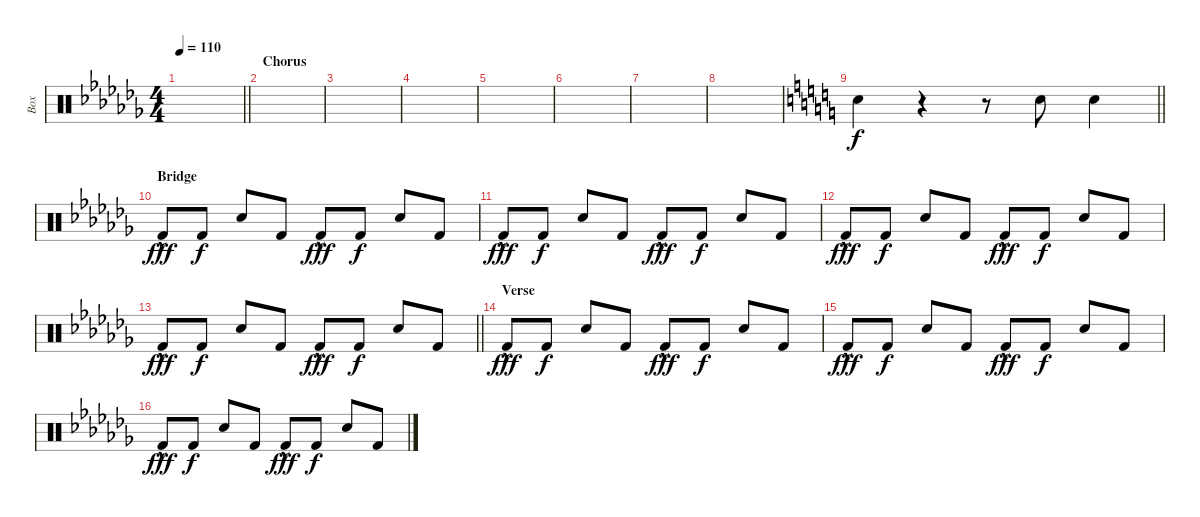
\track ("Box" "Box") {instrument percussion}
\staff {score}
\articulation defaults
\ts (4 4)
\tempo 110
\clef neutral
\barLineRight lightlight
\ks abminor
|
\section ("" "Chorus")
|
|
|
|
|
|
|
\barLineRight lightlight
\ks c "Snare (hit)".4
r.4 r.8 "Snare (hit) 2".8 "Snare (hit) 2".4 |
\section ("" "Bridge")
\ks abminor "Kick (hit) 2"{hac}.8{dy fff volume 13} "Kick (hit) 2".8{dy f volume 5} "Snare (hit) 2".8{volume 13} "Kick (hit) 2".8{volume 5} "Kick (hit) 2"{hac}.8{dy fff volume 13} "Kick (hit) 2".8{dy f volume 5} "Snare (hit) 2".8{volume 13} "Kick (hit) 2".8{volume 5}
|
"Kick (hit) 2"{hac}.8{dy fff volume 13} "Kick (hit) 2".8{dy f volume 5} "Snare (hit) 2".8{volume 13} "Kick (hit) 2".8{volume 5} "Kick (hit) 2"{hac}.8{dy fff volume 13} "Kick (hit) 2".8{dy f volume 5} "Snare (hit) 2".8{volume 13} "Kick (hit) 2".8{volume 5} |
"Kick (hit) 2"{hac}.8{dy fff volume 13} "Kick (hit) 2".8{dy f volume 5} "Snare (hit) 2".8{volume 13} "Kick (hit) 2".8{volume 5} "Kick (hit) 2"{hac}.8{dy fff volume 13} "Kick (hit) 2".8{dy f volume 5} "Snare (hit) 2".8{volume 13} "Kick (hit) 2".8{volume 5} |
\barLineRight lightlight "Kick (hit) 2"{hac}.8{dy fff volume 13} "Kick (hit) 2".8{dy f volume 5} "Snare (hit) 2".8{volume 13} "Kick (hit) 2".8{volume 5} "Kick (hit) 2"{hac}.8{dy fff volume 13} "Kick (hit) 2".8{dy f volume 5} "Snare (hit) 2".8{volume 13} "Kick (hit) 2".8{volume 5}
|
\section ("" "Verse")
"Kick (hit) 2"{hac}.8{dy fff volume 13} "Kick (hit) 2".8{dy f volume 5} "Snare (hit) 2".8{volume 13} "Kick (hit) 2".8{volume 5} "Kick (hit) 2"{hac}.8{dy fff volume 13} "Kick (hit) 2".8{dy f volume 5} "Snare (hit) 2".8{volume 13} "Kick (hit) 2".8{volume 5} |
"Kick (hit) 2"{hac}.8{dy fff volume 13} "Kick (hit) 2".8{dy f volume 5} "Snare (hit) 2".8{volume 13} "Kick (hit) 2".8{volume 5} "Kick (hit) 2"{hac}.8{dy fff volume 13} "Kick (hit) 2".8{dy f volume 5} "Snare (hit) 2".8{volume 13} "Kick (hit) 2".8{volume 5} |
"Kick (hit) 2"{hac}.8{dy fff volume 13} "Kick (hit) 2".8{dy f volume 5} "Snare (hit) 2".8{volume 13} "Kick (hit) 2".8{volume 5} "Kick (hit) 2"{hac}.8{dy fff volume 13} "Kick (hit) 2".8{dy f volume 5} "Snare (hit) 2".8{volume 13} "Kick (hit) 2".8{volume 5}
